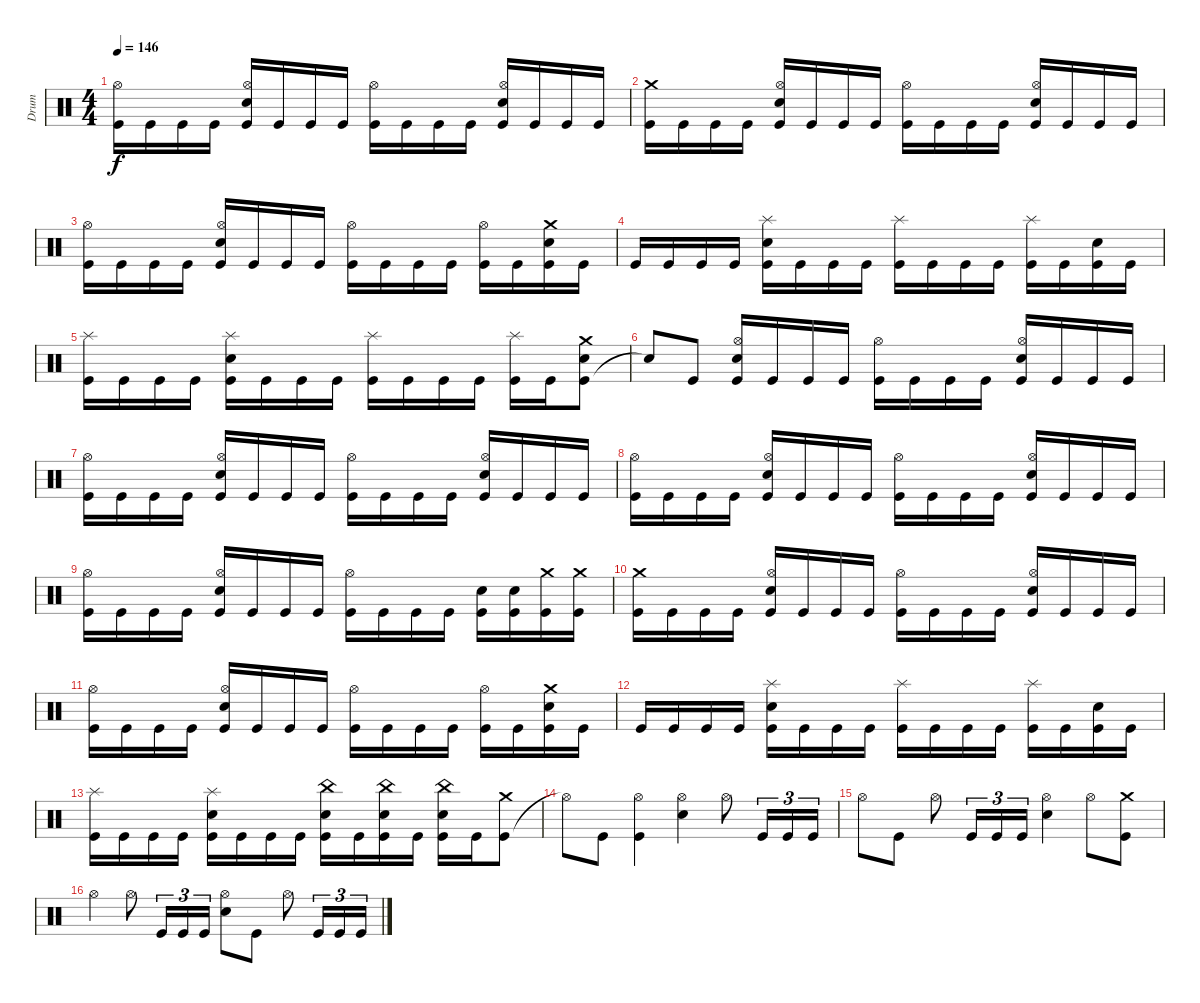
\track ("Drum" "Drum") {instrument percussion}
\staff {score}
\articulation defaults
\ts (4 4)
\tempo 146
\clef neutral
\ks c
("Kick (hit)" "Hi-Hat (open)").16{dy f} "Kick (hit)".16 "Kick (hit)".16 "Kick (hit)".16 ("Kick (hit)" "Electric Snare (hit)" "Hi-Hat (open)").16 "Kick (hit)".16 "Kick (hit)".16 "Kick (hit)".16 ("Kick (hit)" "Hi-Hat (open)").16 "Kick (hit)".16 "Kick (hit)".16 "Kick (hit)".16 ("Kick (hit)" "Electric Snare (hit)" "Hi-Hat (open)").16 "Kick (hit)".16 "Kick (hit)".16 "Kick (hit)".16 |
("Kick (hit)" "Crash medium (hit)").16 "Kick (hit)".16 "Kick (hit)".16 "Kick (hit)".16 ("Kick (hit)" "Electric Snare (hit)" "Hi-Hat (open)").16 "Kick (hit)".16 "Kick (hit)".16 "Kick (hit)".16 ("Kick (hit)" "Hi-Hat (open)").16 "Kick (hit)".16 "Kick (hit)".16 "Kick (hit)".16 ("Kick (hit)" "Electric Snare (hit)" "Hi-Hat (open)").16 "Kick (hit)".16 "Kick (hit)".16 "Kick (hit)".16 |
("Kick (hit)" "Hi-Hat (open)").16 "Kick (hit)".16 "Kick (hit)".16 "Kick (hit)".16 ("Kick (hit)" "Electric Snare (hit)" "Hi-Hat (open)").16 "Kick (hit)".16 "Kick (hit)".16 "Kick (hit)".16 ("Kick (hit)" "Hi-Hat (open)").16 "Kick (hit)".16 "Kick (hit)".16 "Kick (hit)".16 ("Kick (hit)" "Hi-Hat (open)").16 "Kick (hit)".16 ("Kick (hit)" "Electric Snare (hit)" "Crash medium (hit)").16 "Kick (hit)".16 |
"Kick (hit)".16 "Kick (hit)".16 "Kick (hit)".16 "Kick (hit)".16 ("Kick (hit)" "Electric Snare (hit)" "Splash (hit)").16 "Kick (hit)".16 "Kick (hit)".16 "Kick (hit)".16 ("Kick (hit)" "Splash (hit)").16 "Kick (hit)".16 "Kick (hit)".16 "Kick (hit)".16 ("Kick (hit)" "Splash (hit)").16 "Kick (hit)".16 ("Kick (hit)" "Electric Snare (hit)").16 "Kick (hit)".16 |
("Kick (hit)" "Splash (hit)").16 "Kick (hit)".16 "Kick (hit)".16 "Kick (hit)".16 ("Kick (hit)" "Electric Snare (hit)" "Splash (hit)").16 "Kick (hit)".16 "Kick (hit)".16 "Kick (hit)".16 ("Kick (hit)" "Splash (hit)").16 "Kick (hit)".16 "Kick (hit)".16 "Kick (hit)".16 ("Kick (hit)" "Splash (hit)").16 "Kick (hit)".16 ("Kick (hit)" "Electric Snare (hit)" "Crash medium (hit)").8 |
"Snare (hit)"{t}.8 "Kick (hit)".8 ("Kick (hit)" "Electric Snare (hit)" "Hi-Hat (open)").16 "Kick (hit)".16 "Kick (hit)".16 "Kick (hit)".16 ("Kick (hit)" "Hi-Hat (open)").16 "Kick (hit)".16 "Kick (hit)".16 "Kick (hit)".16 ("Kick (hit)" "Electric Snare (hit)" "Hi-Hat (open)").16 "Kick (hit)".16 "Kick (hit)".16 "Kick (hit)".16 |
("Kick (hit)" "Hi-Hat (open)").16 "Kick (hit)".16 "Kick (hit)".16 "Kick (hit)".16 ("Kick (hit)" "Electric Snare (hit)" "Hi-Hat (open)").16 "Kick (hit)".16 "Kick (hit)".16 "Kick (hit)".16 ("Kick (hit)" "Hi-Hat (open)").16 "Kick (hit)".16 "Kick (hit)".16 "Kick (hit)".16 ("Kick (hit)" "Electric Snare (hit)" "Hi-Hat (open)").16 "Kick (hit)".16 "Kick (hit)".16 "Kick (hit)".16 |
("Kick (hit)" "Hi-Hat (open)").16 "Kick (hit)".16 "Kick (hit)".16 "Kick (hit)".16 ("Kick (hit)" "Electric Snare (hit)" "Hi-Hat (open)").16 "Kick (hit)".16 "Kick (hit)".16 "Kick (hit)".16 ("Kick (hit)" "Hi-Hat (open)").16 "Kick (hit)".16 "Kick (hit)".16 "Kick (hit)".16 ("Kick (hit)" "Electric Snare (hit)" "Hi-Hat (open)").16 "Kick (hit)".16 "Kick (hit)".16 "Kick (hit)".16 |
("Kick (hit)" "Hi-Hat (open)").16 "Kick (hit)".16 "Kick (hit)".16 "Kick (hit)".16 ("Kick (hit)" "Electric Snare (hit)" "Hi-Hat (open)").16 "Kick (hit)".16 "Kick (hit)".16 "Kick (hit)".16 ("Kick (hit)" "Hi-Hat (open)").16 "Kick (hit)".16 "Kick (hit)".16 "Kick (hit)".16 ("Kick (hit)" "Electric Snare (hit)").16 ("Kick (hit)" "Electric Snare (hit)").16 ("Kick (hit)" "Crash medium (hit)").16 ("Kick (hit)" "Crash medium (hit)").16 |
("Kick (hit)" "Crash medium (hit)").16 "Kick (hit)".16 "Kick (hit)".16 "Kick (hit)".16 ("Kick (hit)" "Electric Snare (hit)" "Hi-Hat (open)").16 "Kick (hit)".16 "Kick (hit)".16 "Kick (hit)".16 ("Kick (hit)" "Hi-Hat (open)").16 "Kick (hit)".16 "Kick (hit)".16 "Kick (hit)".16 ("Kick (hit)" "Electric Snare (hit)" "Hi-Hat (open)").16 "Kick (hit)".16 "Kick (hit)".16 "Kick (hit)".16 |
("Kick (hit)" "Hi-Hat (open)").16 "Kick (hit)".16 "Kick (hit)".16 "Kick (hit)".16 ("Kick (hit)" "Electric Snare (hit)" "Hi-Hat (open)").16 "Kick (hit)".16 "Kick (hit)".16 "Kick (hit)".16 ("Kick (hit)" "Hi-Hat (open)").16 "Kick (hit)".16 "Kick (hit)".16 "Kick (hit)".16 ("Kick (hit)" "Hi-Hat (open)").16 "Kick (hit)".16 ("Kick (hit)" "Electric Snare (hit)" "Crash medium (hit)").16 "Kick (hit)".16 |
"Kick (hit)".16 "Kick (hit)".16 "Kick (hit)".16 "Kick (hit)".16 ("Kick (hit)" "Electric Snare (hit)" "Splash (hit)").16 "Kick (hit)".16 "Kick (hit)".16 "Kick (hit)".16 ("Kick (hit)" "Splash (hit)").16 "Kick (hit)".16 "Kick (hit)".16 "Kick (hit)".16 ("Kick (hit)" "Splash (hit)").16 "Kick (hit)".16 ("Kick (hit)" "Electric Snare (hit)").16 "Kick (hit)".16 |
("Kick (hit)" "Splash (hit)").16 "Kick (hit)".16 "Kick (hit)".16 "Kick (hit)".16 ("Kick (hit)" "Electric Snare (hit)" "Splash (hit)").16 "Kick (hit)".16 "Kick (hit)".16 "Kick (hit)".16 ("Kick (hit)" "Electric Snare (hit)" "China (hit)").16 "Kick (hit)".16 ("Kick (hit)" "Electric Snare (hit)" "China (hit)").16 "Kick (hit)".16 ("Kick (hit)" "Electric Snare (hit)" "China (hit)").16 "Kick (hit)".16 ("Kick (hit)" "Crash medium (hit)").8 |
"Hi-Hat (open)"{t}.8 "Kick (hit)".8 ("Kick (hit)" "Hi-Hat (open)").4 ("Electric Snare (hit)" "Hi-Hat (open)").4 "Hi-Hat (open)".8 "Kick (hit)".16{tu (3 2)} "Kick (hit)".16{tu (3 2)} "Kick (hit)".16{tu (3 2)} |
"Hi-Hat (open)".8 "Kick (hit)".8 "Hi-Hat (open)".8 "Kick (hit)".16{tu (3 2)} "Kick (hit)".16{tu (3 2)} "Kick (hit)".16{tu (3 2)} ("Electric Snare (hit)" "Hi-Hat (open)").4 "Hi-Hat (open)".8 ("Kick (hit)" "Crash medium (hit)").8 |
"Hi-Hat (open)".4 "Hi-Hat (open)".8 "Kick (hit)".16{tu (3 2)} "Kick (hit)".16{tu (3 2)} "Kick (hit)".16{tu (3 2)} ("Electric Snare (hit)" "Hi-Hat (open)").8 "Kick (hit)".8 "Hi-Hat (open)".8 "Kick (hit)".16{tu (3 2)} "Kick (hit)".16{tu (3 2)} "Kick (hit)".16{tu (3 2)}
